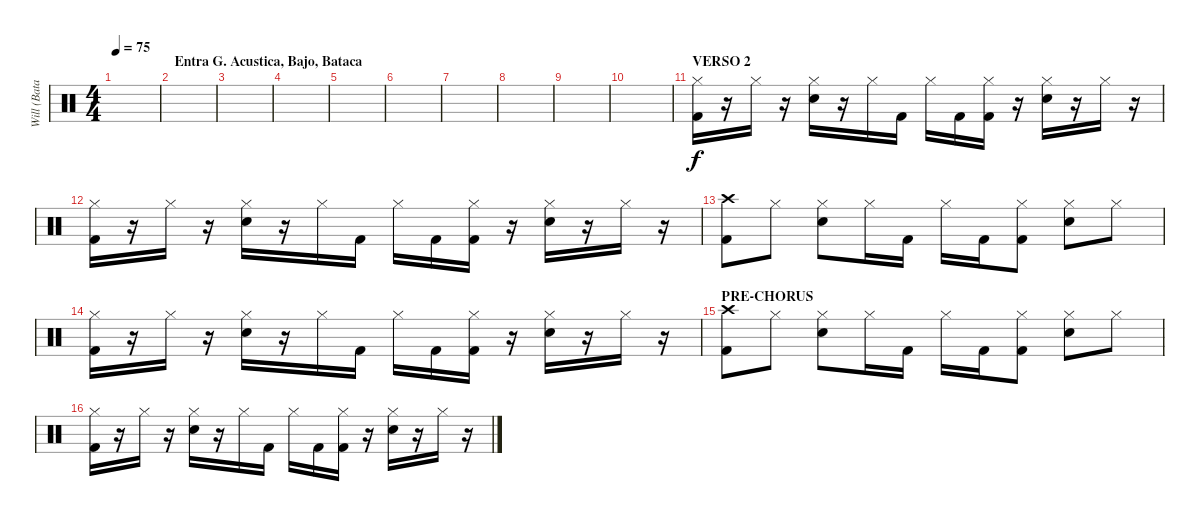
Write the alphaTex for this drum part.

\track ("Will (Bataca)" "Will (Bata") {instrument percussion}
\staff {score}
\articulation defaults
\ts (4 4)
\tempo 75
\clef neutral
\ks c
|
\section ("" "Entra G. Acustica, Bajo, Bataca")
|
|
|
|
|
|
|
|
|
\section ("" "VERSO 2")
("Hi-Hat (closed)" "Kick (hit) 2").16 r.16 "Hi-Hat (closed)".16 r.16 ("Hi-Hat (closed)" "Snare (hit) 2").16 r.16 "Hi-Hat (closed)".16 "Kick (hit) 2".16 "Hi-Hat (closed)".16 "Kick (hit) 2".16 ("Hi-Hat (closed)" "Kick (hit) 2").16 r.16 ("Hi-Hat (closed)" "Snare (hit) 2").16 r.16 "Hi-Hat (closed)".16 r.16 |
("Hi-Hat (closed)" "Kick (hit) 2").16 r.16 "Hi-Hat (closed)".16 r.16 ("Hi-Hat (closed)" "Snare (hit) 2").16 r.16 "Hi-Hat (closed)".16 "Kick (hit) 2".16 "Hi-Hat (closed)".16 "Kick (hit) 2".16 ("Hi-Hat (closed)" "Kick (hit) 2").16 r.16 ("Hi-Hat (closed)" "Snare (hit) 2").16 r.16 "Hi-Hat (closed)".16 r.16 |
("Crash high (hit)" "Kick (hit) 2").8 "Hi-Hat (closed)".8 ("Hi-Hat (closed)" "Snare (hit) 2").8 "Hi-Hat (closed)".16 "Kick (hit) 2".16 "Hi-Hat (closed)".16 "Kick (hit) 2".16 ("Hi-Hat (closed)" "Kick (hit) 2").8 ("Hi-Hat (closed)" "Snare (hit) 2").8 "Hi-Hat (closed)".8 |
("Hi-Hat (closed)" "Kick (hit) 2").16 r.16 "Hi-Hat (closed)".16 r.16 ("Hi-Hat (closed)" "Snare (hit) 2").16 r.16 "Hi-Hat (closed)".16 "Kick (hit) 2".16 "Hi-Hat (closed)".16 "Kick (hit) 2".16 ("Hi-Hat (closed)" "Kick (hit) 2").16 r.16 ("Hi-Hat (closed)" "Snare (hit) 2").16 r.16 "Hi-Hat (closed)".16 r.16 |
\section ("" "PRE-CHORUS")
("Crash high (hit)" "Kick (hit) 2").8 "Hi-Hat (closed)".8 ("Hi-Hat (closed)" "Snare (hit) 2").8 "Hi-Hat (closed)".16 "Kick (hit) 2".16 "Hi-Hat (closed)".16 "Kick (hit) 2".16 ("Hi-Hat (closed)" "Kick (hit) 2").8 ("Hi-Hat (closed)" "Snare (hit) 2").8 "Hi-Hat (closed)".8 |
("Hi-Hat (closed)" "Kick (hit) 2").16 r.16 "Hi-Hat (closed)".16 r.16 ("Hi-Hat (closed)" "Snare (hit) 2").16 r.16 "Hi-Hat (closed)".16 "Kick (hit) 2".16 "Hi-Hat (closed)".16 "Kick (hit) 2".16 ("Hi-Hat (closed)" "Kick (hit) 2").16 r.16 ("Hi-Hat (closed)" "Snare (hit) 2").16 r.16 "Hi-Hat (closed)".16 r.16
